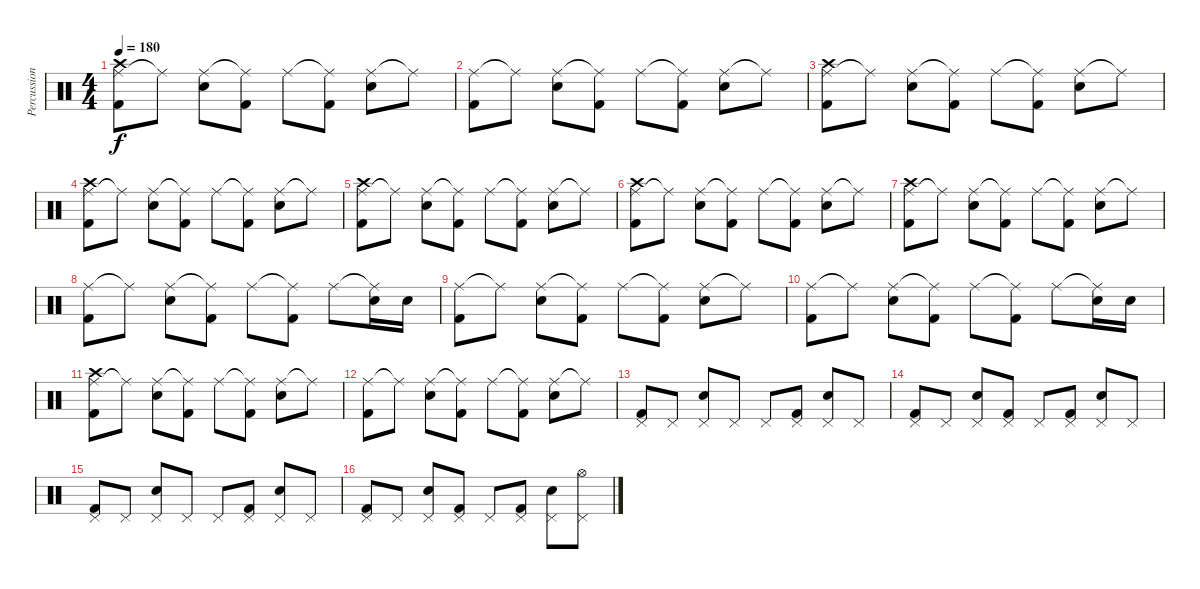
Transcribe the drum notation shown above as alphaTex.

\track ("Percussions" "Percussion") {instrument percussion}
\staff {score}
\articulation defaults
\ts (4 4)
\tempo 180
\clef neutral
\ks c
("Ride (middle)" "Crash high (hit)" "Kick (hit) 2").8{dy f} "Ride (middle)"{t}.8 ("Ride (middle)" "Electric Snare (hit)").8 ("Ride (middle)"{t} "Kick (hit) 2").8 "Ride (middle)".8 ("Ride (middle)"{t} "Kick (hit) 2").8 ("Ride (middle)" "Electric Snare (hit)").8 "Ride (middle)"{t}.8 |
("Ride (middle)" "Kick (hit) 2").8 "Ride (middle)"{t}.8 ("Ride (middle)" "Electric Snare (hit)").8 ("Ride (middle)"{t} "Kick (hit) 2").8 "Ride (middle)".8 ("Ride (middle)"{t} "Kick (hit) 2").8 ("Ride (middle)" "Electric Snare (hit)").8 "Ride (middle)"{t}.8 |
("Ride (middle)" "Crash high (hit)" "Kick (hit) 2").8 "Ride (middle)"{t}.8 ("Ride (middle)" "Electric Snare (hit)").8 ("Ride (middle)"{t} "Kick (hit) 2").8 "Ride (middle)".8 ("Ride (middle)"{t} "Kick (hit) 2").8 ("Ride (middle)" "Electric Snare (hit)").8 "Ride (middle)"{t}.8 |
("Ride (middle)" "Crash high (hit)" "Kick (hit) 2").8 "Ride (middle)"{t}.8 ("Ride (middle)" "Electric Snare (hit)").8 ("Ride (middle)"{t} "Kick (hit) 2").8 "Ride (middle)".8 ("Ride (middle)"{t} "Kick (hit) 2").8 ("Ride (middle)" "Electric Snare (hit)").8 "Ride (middle)"{t}.8 |
("Ride (middle)" "Crash high (hit)" "Kick (hit) 2").8 "Ride (middle)"{t}.8 ("Ride (middle)" "Electric Snare (hit)").8 ("Ride (middle)"{t} "Kick (hit) 2").8 "Ride (middle)".8 ("Ride (middle)"{t} "Kick (hit) 2").8 ("Ride (middle)" "Electric Snare (hit)").8 "Ride (middle)"{t}.8 |
("Ride (middle)" "Crash high (hit)" "Kick (hit) 2").8 "Ride (middle)"{t}.8 ("Ride (middle)" "Electric Snare (hit)").8 ("Ride (middle)"{t} "Kick (hit) 2").8 "Ride (middle)".8 ("Ride (middle)"{t} "Kick (hit) 2").8 ("Ride (middle)" "Electric Snare (hit)").8 "Ride (middle)"{t}.8 |
("Ride (middle)" "Crash high (hit)" "Kick (hit) 2").8 "Ride (middle)"{t}.8 ("Ride (middle)" "Electric Snare (hit)").8 ("Ride (middle)"{t} "Kick (hit) 2").8 "Ride (middle)".8 ("Ride (middle)"{t} "Kick (hit) 2").8 ("Ride (middle)" "Electric Snare (hit)").8 "Ride (middle)"{t}.8 |
("Ride (middle)" "Kick (hit) 2").8 "Ride (middle)"{t}.8 ("Ride (middle)" "Electric Snare (hit)").8 ("Ride (middle)"{t} "Kick (hit) 2").8 "Ride (middle)".8 ("Ride (middle)"{t} "Kick (hit) 2").8 "Ride (middle)".8 ("Ride (middle)"{t} "Electric Snare (hit)").16 "Electric Snare (hit)".16 |
("Ride (middle)" "Kick (hit) 2").8 "Ride (middle)"{t}.8 ("Ride (middle)" "Electric Snare (hit)").8 ("Ride (middle)"{t} "Kick (hit) 2").8 "Ride (middle)".8 ("Ride (middle)"{t} "Kick (hit) 2").8 ("Ride (middle)" "Electric Snare (hit)").8 "Ride (middle)"{t}.8 |
("Ride (middle)" "Kick (hit) 2").8 "Ride (middle)"{t}.8 ("Ride (middle)" "Electric Snare (hit)").8 ("Ride (middle)"{t} "Kick (hit) 2").8 "Ride (middle)".8 ("Ride (middle)"{t} "Kick (hit) 2").8 "Ride (middle)".8 ("Ride (middle)"{t} "Electric Snare (hit)").16 "Electric Snare (hit)".16 |
("Ride (middle)" "Crash high (hit)" "Kick (hit) 2").8 "Ride (middle)"{t}.8 ("Ride (middle)" "Electric Snare (hit)").8 ("Ride (middle)"{t} "Kick (hit) 2").8 "Ride (middle)".8 ("Ride (middle)"{t} "Kick (hit) 2").8 ("Ride (middle)" "Electric Snare (hit)").8 "Ride (middle)"{t}.8 |
("Ride (middle)" "Kick (hit) 2").8 "Ride (middle)"{t}.8 ("Ride (middle)" "Electric Snare (hit)").8 ("Ride (middle)"{t} "Kick (hit) 2").8 "Ride (middle)".8 ("Ride (middle)"{t} "Kick (hit) 2").8 ("Ride (middle)" "Electric Snare (hit)").8 "Ride (middle)"{t}.8 |
("Pedal Hi-Hat (hit)" "Kick (hit) 2").8 "Pedal Hi-Hat (hit)".8 ("Pedal Hi-Hat (hit)" "Electric Snare (hit)").8 "Pedal Hi-Hat (hit)".8 "Pedal Hi-Hat (hit)".8 ("Pedal Hi-Hat (hit)" "Kick (hit) 2").8 ("Pedal Hi-Hat (hit)" "Electric Snare (hit)").8 "Pedal Hi-Hat (hit)".8 |
("Pedal Hi-Hat (hit)" "Kick (hit) 2").8 "Pedal Hi-Hat (hit)".8 ("Pedal Hi-Hat (hit)" "Electric Snare (hit)").8 ("Pedal Hi-Hat (hit)" "Kick (hit) 2").8 "Pedal Hi-Hat (hit)".8 ("Pedal Hi-Hat (hit)" "Kick (hit) 2").8 ("Pedal Hi-Hat (hit)" "Electric Snare (hit)").8 "Pedal Hi-Hat (hit)".8 |
("Pedal Hi-Hat (hit)" "Kick (hit) 2").8 "Pedal Hi-Hat (hit)".8 ("Pedal Hi-Hat (hit)" "Electric Snare (hit)").8 "Pedal Hi-Hat (hit)".8 "Pedal Hi-Hat (hit)".8 ("Pedal Hi-Hat (hit)" "Kick (hit) 2").8 ("Pedal Hi-Hat (hit)" "Electric Snare (hit)").8 "Pedal Hi-Hat (hit)".8 |
("Pedal Hi-Hat (hit)" "Kick (hit) 2").8 "Pedal Hi-Hat (hit)".8 ("Pedal Hi-Hat (hit)" "Electric Snare (hit)").8 ("Pedal Hi-Hat (hit)" "Kick (hit) 2").8 "Pedal Hi-Hat (hit)".8 ("Pedal Hi-Hat (hit)" "Kick (hit) 2").8 ("Pedal Hi-Hat (hit)" "Electric Snare (hit)").8 ("Pedal Hi-Hat (hit)" "Hi-Hat (open)").8
